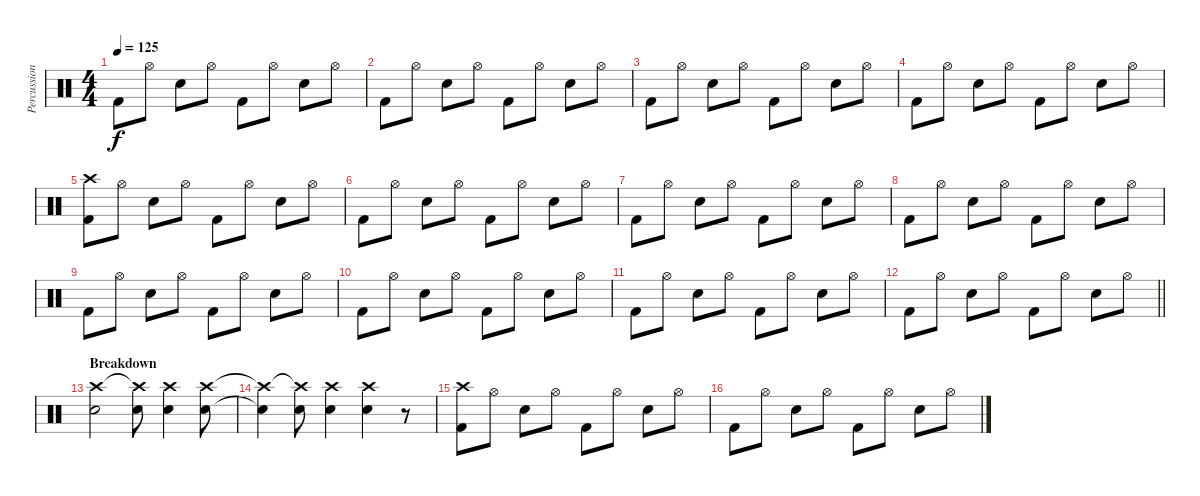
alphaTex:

\track ("Percussion" "Percussion") {instrument percussion}
\staff {score}
\articulation defaults
\ts (4 4)
\tempo 125
\clef neutral
\ks c "Kick (hit) 2".8{dy f} "Hi-Hat (open)".8 "Snare (hit) 2".8 "Hi-Hat (open)".8 "Kick (hit) 2".8 "Hi-Hat (open)".8 "Snare (hit) 2".8 "Hi-Hat (open)".8
|
"Kick (hit) 2".8 "Hi-Hat (open)".8 "Snare (hit) 2".8 "Hi-Hat (open)".8 "Kick (hit) 2".8 "Hi-Hat (open)".8 "Snare (hit) 2".8 "Hi-Hat (open)".8 |
"Kick (hit) 2".8 "Hi-Hat (open)".8 "Snare (hit) 2".8 "Hi-Hat (open)".8 "Kick (hit) 2".8 "Hi-Hat (open)".8 "Snare (hit) 2".8 "Hi-Hat (open)".8 |
"Kick (hit) 2".8 "Hi-Hat (open)".8 "Snare (hit) 2".8 "Hi-Hat (open)".8 "Kick (hit) 2".8 "Hi-Hat (open)".8 "Snare (hit) 2".8 "Hi-Hat (open)".8 |
("Crash high (hit)" "Kick (hit) 2").8 "Hi-Hat (open)".8 "Snare (hit) 2".8 "Hi-Hat (open)".8 "Kick (hit) 2".8 "Hi-Hat (open)".8 "Snare (hit) 2".8 "Hi-Hat (open)".8 |
"Kick (hit) 2".8 "Hi-Hat (open)".8 "Snare (hit) 2".8 "Hi-Hat (open)".8 "Kick (hit) 2".8 "Hi-Hat (open)".8 "Snare (hit) 2".8 "Hi-Hat (open)".8 |
"Kick (hit) 2".8 "Hi-Hat (open)".8 "Snare (hit) 2".8 "Hi-Hat (open)".8 "Kick (hit) 2".8 "Hi-Hat (open)".8 "Snare (hit) 2".8 "Hi-Hat (open)".8 |
"Kick (hit) 2".8 "Hi-Hat (open)".8 "Snare (hit) 2".8 "Hi-Hat (open)".8 "Kick (hit) 2".8 "Hi-Hat (open)".8 "Snare (hit) 2".8 "Hi-Hat (open)".8 |
"Kick (hit) 2".8 "Hi-Hat (open)".8 "Snare (hit) 2".8 "Hi-Hat (open)".8 "Kick (hit) 2".8 "Hi-Hat (open)".8 "Snare (hit) 2".8 "Hi-Hat (open)".8 |
"Kick (hit) 2".8 "Hi-Hat (open)".8 "Snare (hit) 2".8 "Hi-Hat (open)".8 "Kick (hit) 2".8 "Hi-Hat (open)".8 "Snare (hit) 2".8 "Hi-Hat (open)".8 |
"Kick (hit) 2".8 "Hi-Hat (open)".8 "Snare (hit) 2".8 "Hi-Hat (open)".8 "Kick (hit) 2".8 "Hi-Hat (open)".8 "Snare (hit) 2".8 "Hi-Hat (open)".8 |
\barLineRight lightlight "Kick (hit) 2".8 "Hi-Hat (open)".8 "Snare (hit) 2".8 "Hi-Hat (open)".8 "Kick (hit) 2".8 "Hi-Hat (open)".8 "Snare (hit) 2".8 "Hi-Hat (open)".8
|
\section ("" "Breakdown")
("Crash high (hit)" "Snare (hit) 2").2 ("Crash high (hit)"{t} "Snare (hit) 2").8 ("Crash high (hit)" "Snare (hit) 2").4 ("Crash high (hit)" "Snare (hit) 2").8 |
("Crash high (hit)"{t} "Snare (hit) 2"{t}).4 ("Crash high (hit)"{t} "Snare (hit) 2").8 ("Crash high (hit)" "Snare (hit) 2").4 ("Crash high (hit)" "Snare (hit) 2").4 r.8 |
("Crash high (hit)" "Kick (hit) 2").8 "Hi-Hat (open)".8 "Snare (hit) 2".8 "Hi-Hat (open)".8 "Kick (hit) 2".8 "Hi-Hat (open)".8 "Snare (hit) 2".8 "Hi-Hat (open)".8 |
"Kick (hit) 2".8 "Hi-Hat (open)".8 "Snare (hit) 2".8 "Hi-Hat (open)".8 "Kick (hit) 2".8 "Hi-Hat (open)".8 "Snare (hit) 2".8 "Hi-Hat (open)".8
